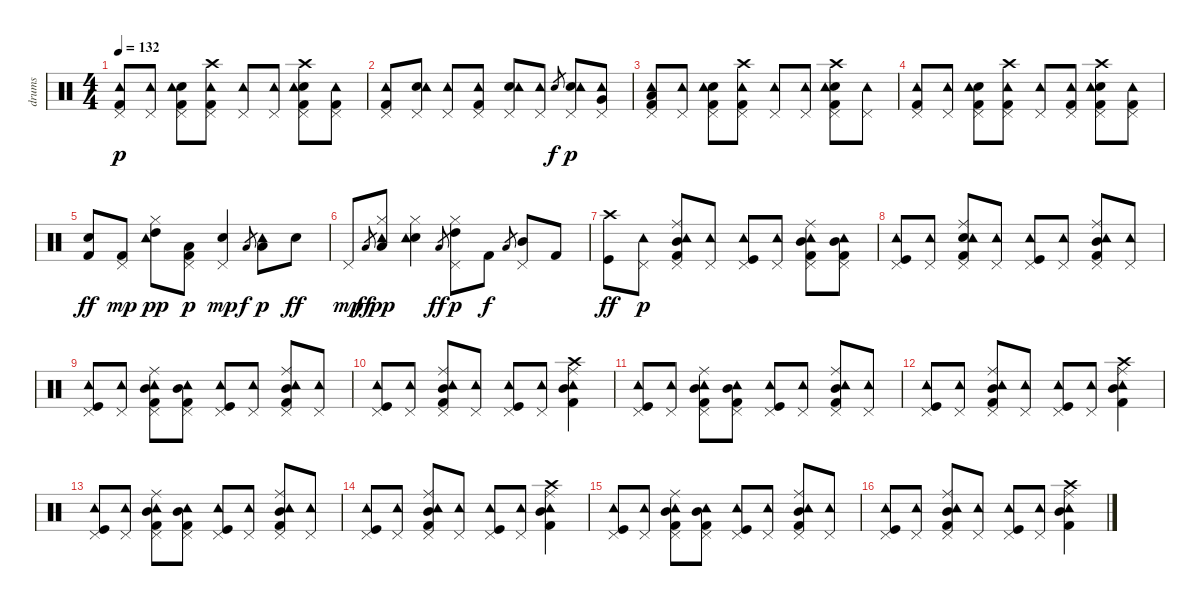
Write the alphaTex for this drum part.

\track ("drums" "drums") {instrument percussion}
\staff {score}
\articulation defaults
\ts (4 4)
\tempo 132
\clef neutral
\ks c
("Kick (hit) 2" "Pedal Hi-Hat (hit)" "Tambourine (hit)").8{dy p} ("Pedal Hi-Hat (hit)" "Tambourine (hit)").8 ("Electric Snare (hit)" "Kick (hit) 2" "Pedal Hi-Hat (hit)" "Tambourine (hit)").8 ("Crash high (hit)" "Kick (hit) 2" "Pedal Hi-Hat (hit)" "Tambourine (hit)").8 ("Pedal Hi-Hat (hit)" "Tambourine (hit)").8 ("Pedal Hi-Hat (hit)" "Tambourine (hit)").8 ("Electric Snare (hit)" "Crash high (hit)" "Kick (hit) 2" "Pedal Hi-Hat (hit)" "Tambourine (hit)").8 ("Kick (hit) 2" "Pedal Hi-Hat (hit)" "Tambourine (hit)").8 |
("Kick (hit) 2" "Pedal Hi-Hat (hit)" "Tambourine (hit)").8 ("Electric Snare (hit)" "Pedal Hi-Hat (hit)" "Tambourine (hit)").8 ("Pedal Hi-Hat (hit)" "Tambourine (hit)").8 ("Kick (hit) 2" "Pedal Hi-Hat (hit)" "Tambourine (hit)").8 ("Electric Snare (hit)" "Pedal Hi-Hat (hit)" "Tambourine (hit)").8 ("Pedal Hi-Hat (hit)" "Tambourine (hit)").8 "Electric Snare (hit)".8{gr dy f} ("Electric Snare (hit)" "Pedal Hi-Hat (hit)" "Tambourine (hit)").8{dy p} ("Very Low Tom (hit)" "Pedal Hi-Hat (hit)" "Tambourine (hit)").8 |
("Low Floor Tom (hit)" "Kick (hit) 2" "Pedal Hi-Hat (hit)" "Tambourine (hit)").8 ("Pedal Hi-Hat (hit)" "Tambourine (hit)").8 ("Electric Snare (hit)" "Kick (hit) 2" "Pedal Hi-Hat (hit)" "Tambourine (hit)").8 ("Crash high (hit)" "Kick (hit) 2" "Pedal Hi-Hat (hit)" "Tambourine (hit)").8 ("Pedal Hi-Hat (hit)" "Tambourine (hit)").8 ("Pedal Hi-Hat (hit)" "Tambourine (hit)").8 ("Electric Snare (hit)" "Crash high (hit)" "Kick (hit) 2" "Pedal Hi-Hat (hit)" "Tambourine (hit)").8 ("Pedal Hi-Hat (hit)" "Tambourine (hit)").8 |
("Kick (hit) 2" "Pedal Hi-Hat (hit)" "Tambourine (hit)").8 ("Pedal Hi-Hat (hit)" "Tambourine (hit)").8 ("Electric Snare (hit)" "Kick (hit) 2" "Pedal Hi-Hat (hit)" "Tambourine (hit)").8 ("Crash high (hit)" "Kick (hit) 2" "Pedal Hi-Hat (hit)" "Tambourine (hit)").8 ("Pedal Hi-Hat (hit)" "Tambourine (hit)").8 ("Kick (hit) 2" "Pedal Hi-Hat (hit)" "Tambourine (hit)").8 ("Electric Snare (hit)" "Crash high (hit)" "Kick (hit) 2" "Pedal Hi-Hat (hit)" "Tambourine (hit)").8 ("Kick (hit) 2" "Pedal Hi-Hat (hit)" "Tambourine (hit)").8 |
("Electric Snare (hit)"{tr (40 16)} "Kick (hit) 2").8{dy ff} ("Kick (hit) 2"{tr (36 16)} "Pedal Hi-Hat (hit)").8{dy mp} ("High Tom (hit)"{tr (48 16)} "Hi-Hat (closed)" "Tambourine (hit)").8{dy pp} ("Low Tom (hit)" "Kick (hit) 2" "Pedal Hi-Hat (hit)").8{dy p} ("Electric Snare (hit)" "Pedal Hi-Hat (hit)").4{dy mp} "Low Tom (hit)".8{gr dy f} ("Low Tom (hit)" "Tambourine (hit)").8{dy p} "Electric Snare (hit)".8{dy ff} |
"Pedal Hi-Hat (hit)".8{dy mp} "Low Tom (hit)".8{gr dy ff} ("Low Tom (hit)" "Hi-Hat (closed)" "Tambourine (hit)").8{dy pp} ("Snare (hit) 2" "Hi-Hat (closed)" "Tambourine (hit)").4 "Low Tom (hit)".8{gr dy ff} ("High Tom (hit)" "Hi-Hat (closed)" "Pedal Hi-Hat (hit)").8{dy p} "Kick (hit) 2".8{dy f} "Low Tom (hit)".8{gr} ("Mid Tom (hit)" "Pedal Hi-Hat (hit)").8 "Kick (hit) 2".8 |
("Kick (hit)" "Crash high (hit)").8{dy ff} ("Pedal Hi-Hat (hit)" "Tambourine (hit)").8{dy p} ("Ride (middle)" "Mid Tom (hit)" "Kick (hit) 2" "Pedal Hi-Hat (hit)" "Tambourine (hit)").8 ("Pedal Hi-Hat (hit)" "Tambourine (hit)").8 ("Kick (hit)" "Pedal Hi-Hat (hit)" "Tambourine (hit)").8 ("Pedal Hi-Hat (hit)" "Tambourine (hit)").8 ("Ride (middle)" "Mid Tom (hit)" "Kick (hit) 2" "Pedal Hi-Hat (hit)" "Tambourine (hit)").8 ("Mid Tom (hit)" "Kick (hit) 2" "Pedal Hi-Hat (hit)" "Tambourine (hit)").8 |
("Kick (hit)" "Pedal Hi-Hat (hit)" "Tambourine (hit)").8 ("Pedal Hi-Hat (hit)" "Tambourine (hit)").8 ("Electric Snare (hit)" "Ride (middle)" "Kick (hit) 2" "Pedal Hi-Hat (hit)" "Tambourine (hit)").8 ("Pedal Hi-Hat (hit)" "Tambourine (hit)").8 ("Kick (hit)" "Pedal Hi-Hat (hit)" "Tambourine (hit)").8 ("Pedal Hi-Hat (hit)" "Tambourine (hit)").8 ("Ride (middle)" "Mid Tom (hit)" "Kick (hit) 2" "Pedal Hi-Hat (hit)" "Tambourine (hit)").8 ("Pedal Hi-Hat (hit)" "Tambourine (hit)").8 |
("Kick (hit)" "Pedal Hi-Hat (hit)" "Tambourine (hit)").8 ("Pedal Hi-Hat (hit)" "Tambourine (hit)").8 ("Ride (middle)" "Mid Tom (hit)" "Kick (hit) 2" "Pedal Hi-Hat (hit)" "Tambourine (hit)").8 ("Mid Tom (hit)" "Kick (hit) 2" "Pedal Hi-Hat (hit)" "Tambourine (hit)").8 ("Kick (hit)" "Pedal Hi-Hat (hit)" "Tambourine (hit)").8 ("Pedal Hi-Hat (hit)" "Tambourine (hit)").8 ("Ride (middle)" "Mid Tom (hit)" "Kick (hit) 2" "Pedal Hi-Hat (hit)" "Tambourine (hit)").8 ("Pedal Hi-Hat (hit)" "Tambourine (hit)").8 |
("Kick (hit)" "Pedal Hi-Hat (hit)" "Tambourine (hit)").8 ("Pedal Hi-Hat (hit)" "Tambourine (hit)").8 ("Ride (middle)" "Mid Tom (hit)" "Kick (hit) 2" "Pedal Hi-Hat (hit)" "Tambourine (hit)").8 ("Pedal Hi-Hat (hit)" "Tambourine (hit)").8 ("Kick (hit)" "Pedal Hi-Hat (hit)" "Tambourine (hit)").8 ("Pedal Hi-Hat (hit)" "Tambourine (hit)").8 ("Ride (middle)" "Mid Tom (hit)" "Kick (hit) 2" "Crash high (hit)" "Tambourine (hit)").4 |
("Kick (hit)" "Pedal Hi-Hat (hit)" "Tambourine (hit)").8 ("Pedal Hi-Hat (hit)" "Tambourine (hit)").8 ("Ride (middle)" "Mid Tom (hit)" "Kick (hit) 2" "Pedal Hi-Hat (hit)" "Tambourine (hit)").8 ("Mid Tom (hit)" "Kick (hit) 2" "Pedal Hi-Hat (hit)" "Tambourine (hit)").8 ("Kick (hit)" "Pedal Hi-Hat (hit)" "Tambourine (hit)").8 ("Pedal Hi-Hat (hit)" "Tambourine (hit)").8 ("Ride (middle)" "Mid Tom (hit)" "Kick (hit) 2" "Pedal Hi-Hat (hit)" "Tambourine (hit)").8 ("Pedal Hi-Hat (hit)" "Tambourine (hit)").8 |
("Kick (hit)" "Pedal Hi-Hat (hit)" "Tambourine (hit)").8 ("Pedal Hi-Hat (hit)" "Tambourine (hit)").8 ("Ride (middle)" "Mid Tom (hit)" "Kick (hit) 2" "Pedal Hi-Hat (hit)" "Tambourine (hit)").8 ("Pedal Hi-Hat (hit)" "Tambourine (hit)").8 ("Kick (hit)" "Pedal Hi-Hat (hit)" "Tambourine (hit)").8 ("Pedal Hi-Hat (hit)" "Tambourine (hit)").8 ("Ride (middle)" "Mid Tom (hit)" "Kick (hit) 2" "Crash high (hit)" "Tambourine (hit)").4 |
("Kick (hit)" "Pedal Hi-Hat (hit)" "Tambourine (hit)").8 ("Pedal Hi-Hat (hit)" "Tambourine (hit)").8 ("Ride (middle)" "Mid Tom (hit)" "Kick (hit) 2" "Pedal Hi-Hat (hit)" "Tambourine (hit)").8 ("Mid Tom (hit)" "Kick (hit) 2" "Pedal Hi-Hat (hit)" "Tambourine (hit)").8 ("Kick (hit)" "Pedal Hi-Hat (hit)" "Tambourine (hit)").8 ("Pedal Hi-Hat (hit)" "Tambourine (hit)").8 ("Ride (middle)" "Mid Tom (hit)" "Kick (hit) 2" "Pedal Hi-Hat (hit)" "Tambourine (hit)").8 ("Pedal Hi-Hat (hit)" "Tambourine (hit)").8 |
("Kick (hit)" "Pedal Hi-Hat (hit)" "Tambourine (hit)").8 ("Pedal Hi-Hat (hit)" "Tambourine (hit)").8 ("Ride (middle)" "Mid Tom (hit)" "Kick (hit) 2" "Pedal Hi-Hat (hit)" "Tambourine (hit)").8 ("Pedal Hi-Hat (hit)" "Tambourine (hit)").8 ("Kick (hit)" "Pedal Hi-Hat (hit)" "Tambourine (hit)").8 ("Pedal Hi-Hat (hit)" "Tambourine (hit)").8 ("Ride (middle)" "Mid Tom (hit)" "Kick (hit) 2" "Crash high (hit)" "Tambourine (hit)").4 |
("Kick (hit)" "Pedal Hi-Hat (hit)" "Tambourine (hit)").8 ("Pedal Hi-Hat (hit)" "Tambourine (hit)").8 ("Ride (middle)" "Mid Tom (hit)" "Kick (hit) 2" "Pedal Hi-Hat (hit)" "Tambourine (hit)").8 ("Mid Tom (hit)" "Kick (hit) 2" "Pedal Hi-Hat (hit)" "Tambourine (hit)").8 ("Kick (hit)" "Pedal Hi-Hat (hit)" "Tambourine (hit)").8 ("Pedal Hi-Hat (hit)" "Tambourine (hit)").8 ("Ride (middle)" "Mid Tom (hit)" "Kick (hit) 2" "Pedal Hi-Hat (hit)" "Tambourine (hit)").8 ("Pedal Hi-Hat (hit)" "Tambourine (hit)").8 |
("Kick (hit)" "Pedal Hi-Hat (hit)" "Tambourine (hit)").8 ("Pedal Hi-Hat (hit)" "Tambourine (hit)").8 ("Ride (middle)" "Mid Tom (hit)" "Kick (hit) 2" "Pedal Hi-Hat (hit)" "Tambourine (hit)").8 ("Pedal Hi-Hat (hit)" "Tambourine (hit)").8 ("Kick (hit)" "Pedal Hi-Hat (hit)" "Tambourine (hit)").8 ("Pedal Hi-Hat (hit)" "Tambourine (hit)").8 ("Ride (middle)" "Mid Tom (hit)" "Kick (hit) 2" "Crash high (hit)" "Tambourine (hit)").4
